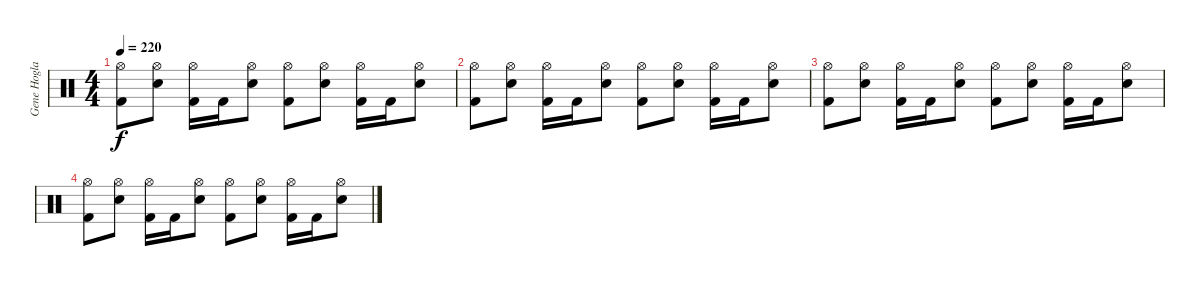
\track ("Gene Hoglan" "Gene Hogla") {instrument percussion}
\staff {score}
\articulation defaults
\ts (4 4)
\tempo 220
\clef neutral
\ks c
("Hi-Hat (open)" "Kick (hit) 2").8{dy f} ("Hi-Hat (open)" "Electric Snare (hit)").8 ("Hi-Hat (open)" "Kick (hit) 2").16 "Kick (hit) 2".16 ("Hi-Hat (open)" "Electric Snare (hit)").8 ("Hi-Hat (open)" "Kick (hit) 2").8 ("Hi-Hat (open)" "Electric Snare (hit)").8 ("Hi-Hat (open)" "Kick (hit) 2").16 "Kick (hit) 2".16 ("Hi-Hat (open)" "Electric Snare (hit)").8 |
("Hi-Hat (open)" "Kick (hit) 2").8 ("Hi-Hat (open)" "Electric Snare (hit)").8 ("Hi-Hat (open)" "Kick (hit) 2").16 "Kick (hit) 2".16 ("Hi-Hat (open)" "Electric Snare (hit)").8 ("Hi-Hat (open)" "Kick (hit) 2").8 ("Hi-Hat (open)" "Electric Snare (hit)").8 ("Hi-Hat (open)" "Kick (hit) 2").16 "Kick (hit) 2".16 ("Hi-Hat (open)" "Electric Snare (hit)").8 |
("Hi-Hat (open)" "Kick (hit) 2").8 ("Hi-Hat (open)" "Electric Snare (hit)").8 ("Hi-Hat (open)" "Kick (hit) 2").16 "Kick (hit) 2".16 ("Hi-Hat (open)" "Electric Snare (hit)").8 ("Hi-Hat (open)" "Kick (hit) 2").8 ("Hi-Hat (open)" "Electric Snare (hit)").8 ("Hi-Hat (open)" "Kick (hit) 2").16 "Kick (hit) 2".16 ("Hi-Hat (open)" "Electric Snare (hit)").8 |
("Hi-Hat (open)" "Kick (hit) 2").8 ("Hi-Hat (open)" "Electric Snare (hit)").8 ("Hi-Hat (open)" "Kick (hit) 2").16 "Kick (hit) 2".16 ("Hi-Hat (open)" "Electric Snare (hit)").8 ("Hi-Hat (open)" "Kick (hit) 2").8 ("Hi-Hat (open)" "Electric Snare (hit)").8 ("Hi-Hat (open)" "Kick (hit) 2").16 "Kick (hit) 2".16 ("Hi-Hat (open)" "Electric Snare (hit)").8
